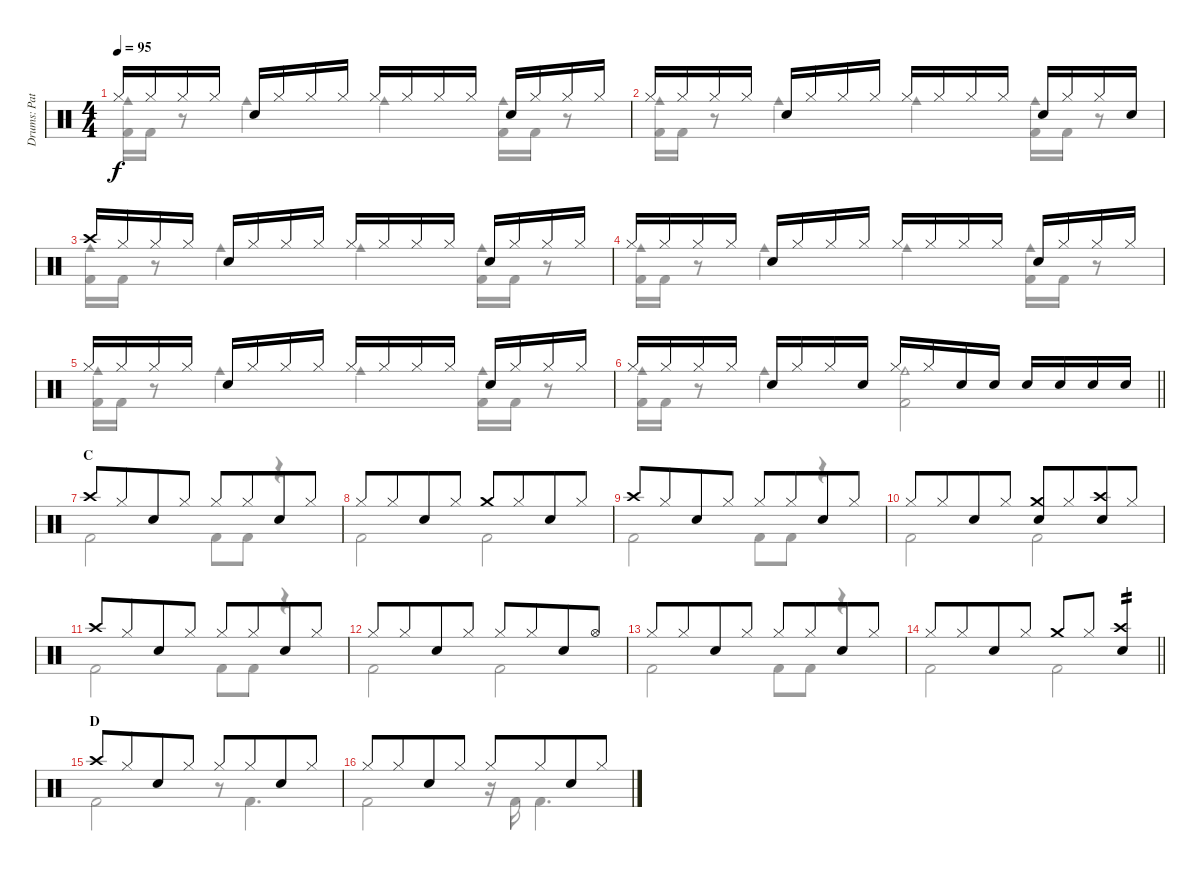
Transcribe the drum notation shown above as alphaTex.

\track ("Drums: Pat" "Drums: Pat") {instrument percussion}
\staff {score}
\articulation defaults
\voice
\ts (4 4)
\tempo 95
\clef neutral
\ks c "Hi-Hat (closed)".16{dy f} "Hi-Hat (closed)".16 "Hi-Hat (closed)".16 "Hi-Hat (closed)".16 "Snare (hit) 2".16 "Hi-Hat (closed)".16 "Hi-Hat (closed)".16 "Hi-Hat (closed)".16 "Hi-Hat (closed)".16 "Hi-Hat (closed)".16 "Hi-Hat (closed)".16 "Hi-Hat (closed)".16 "Snare (hit) 2".16 "Hi-Hat (closed)".16 "Hi-Hat (closed)".16 "Hi-Hat (closed)".16
|
"Hi-Hat (closed)".16 "Hi-Hat (closed)".16 "Hi-Hat (closed)".16 "Hi-Hat (closed)".16 "Snare (hit) 2".16 "Hi-Hat (closed)".16 "Hi-Hat (closed)".16 "Hi-Hat (closed)".16 "Hi-Hat (closed)".16 "Hi-Hat (closed)".16 "Hi-Hat (closed)".16 "Hi-Hat (closed)".16 "Snare (hit) 2".16 "Hi-Hat (closed)".16 "Hi-Hat (closed)".16 "Snare (hit) 2".16 |
"Crash high (hit)".16 "Hi-Hat (closed)".16 "Hi-Hat (closed)".16 "Hi-Hat (closed)".16 "Snare (hit) 2".16 "Hi-Hat (closed)".16 "Hi-Hat (closed)".16 "Hi-Hat (closed)".16 "Hi-Hat (closed)".16 "Hi-Hat (closed)".16 "Hi-Hat (closed)".16 "Hi-Hat (closed)".16 "Snare (hit) 2".16 "Hi-Hat (closed)".16 "Hi-Hat (closed)".16 "Hi-Hat (closed)".16 |
"Hi-Hat (closed)".16 "Hi-Hat (closed)".16 "Hi-Hat (closed)".16 "Hi-Hat (closed)".16 "Snare (hit) 2".16 "Hi-Hat (closed)".16 "Hi-Hat (closed)".16 "Hi-Hat (closed)".16 "Hi-Hat (closed)".16 "Hi-Hat (closed)".16 "Hi-Hat (closed)".16 "Hi-Hat (closed)".16 "Snare (hit) 2".16 "Hi-Hat (closed)".16 "Hi-Hat (closed)".16 "Hi-Hat (closed)".16 |
"Hi-Hat (closed)".16 "Hi-Hat (closed)".16 "Hi-Hat (closed)".16 "Hi-Hat (closed)".16 "Snare (hit) 2".16 "Hi-Hat (closed)".16 "Hi-Hat (closed)".16 "Hi-Hat (closed)".16 "Hi-Hat (closed)".16 "Hi-Hat (closed)".16 "Hi-Hat (closed)".16 "Hi-Hat (closed)".16 "Snare (hit) 2".16 "Hi-Hat (closed)".16 "Hi-Hat (closed)".16 "Hi-Hat (closed)".16 |
\barLineRight lightlight "Hi-Hat (closed)".16 "Hi-Hat (closed)".16 "Hi-Hat (closed)".16 "Hi-Hat (closed)".16 "Snare (hit) 2".16 "Hi-Hat (closed)".16 "Hi-Hat (closed)".16 "Snare (hit) 2".16 "Hi-Hat (closed)".16 "Hi-Hat (closed)".16 "Snare (hit) 2".16 "Snare (hit) 2".16 "Snare (hit) 2".16 "Snare (hit) 2".16 "Snare (hit) 2".16 "Snare (hit) 2".16
|
\section ("" "C")
"Crash high (hit)".8 "Hi-Hat (closed)".8{beam merge} "Snare (hit) 2".8 "Hi-Hat (closed)".8 "Hi-Hat (closed)".8 "Hi-Hat (closed)".8{beam merge} "Snare (hit) 2".8 "Hi-Hat (closed)".8 |
"Hi-Hat (closed)".8 "Hi-Hat (closed)".8{beam merge} "Snare (hit) 2".8 "Hi-Hat (closed)".8 "Crash medium (hit)".8 "Hi-Hat (closed)".8{beam merge} "Snare (hit) 2".8 "Hi-Hat (closed)".8 |
"Crash high (hit)".8 "Hi-Hat (closed)".8{beam merge} "Snare (hit) 2".8 "Hi-Hat (closed)".8 "Hi-Hat (closed)".8 "Hi-Hat (closed)".8{beam merge} "Snare (hit) 2".8 "Hi-Hat (closed)".8 |
"Hi-Hat (closed)".8 "Hi-Hat (closed)".8{beam merge} "Snare (hit) 2".8 "Hi-Hat (closed)".8 ("Crash medium (hit)" "Snare (hit) 2").8 "Hi-Hat (closed)".8{beam merge} ("Crash high (hit)" "Snare (hit) 2").8 "Hi-Hat (closed)".8 |
"Crash high (hit)".8 "Hi-Hat (closed)".8{beam merge} "Snare (hit) 2".8 "Hi-Hat (closed)".8 "Hi-Hat (closed)".8 "Hi-Hat (closed)".8{beam merge} "Snare (hit) 2".8 "Hi-Hat (closed)".8 |
"Hi-Hat (closed)".8 "Hi-Hat (closed)".8{beam merge} "Snare (hit) 2".8 "Hi-Hat (closed)".8 "Hi-Hat (closed)".8 "Hi-Hat (closed)".8{beam merge} "Snare (hit) 2".8 "Hi-Hat (open)".8 |
"Hi-Hat (closed)".8 "Hi-Hat (closed)".8{beam merge} "Snare (hit) 2".8 "Hi-Hat (closed)".8 "Hi-Hat (closed)".8 "Hi-Hat (closed)".8{beam merge} "Snare (hit) 2".8 "Hi-Hat (closed)".8 |
\barLineRight lightlight "Hi-Hat (closed)".8 "Hi-Hat (closed)".8{beam merge} "Snare (hit) 2".8 "Hi-Hat (closed)".8 "Crash medium (hit)".8 "Hi-Hat (closed)".8{beam merge}
("Crash high (hit)" "Snare (hit) 2").4{tp 2} |
\section ("" "D")
"Crash high (hit)".8 "Hi-Hat (closed)".8{beam merge} "Snare (hit) 2".8 "Hi-Hat (closed)".8 "Hi-Hat (closed)".8 "Hi-Hat (closed)".8{beam merge} "Snare (hit) 2".8 "Hi-Hat (closed)".8 |
"Hi-Hat (closed)".8 "Hi-Hat (closed)".8{beam merge} "Snare (hit) 2".8 "Hi-Hat (closed)".8 "Hi-Hat (closed)".8 "Hi-Hat (closed)".8{beam merge} "Snare (hit) 2".8 "Hi-Hat (closed)".8
\voice
\clef neutral
\ottava regular
\simile none
\ks c
("Kick (hit) 2" "Cowbell medium (hit)").16{dy f} "Kick (hit) 2".16 r.8 "Cowbell medium (hit)".4 "Cowbell medium (hit)".4 ("Kick (hit) 2" "Cowbell medium (hit)").16 "Kick (hit) 2".16 r.8 |
("Kick (hit) 2" "Cowbell medium (hit)").16 "Kick (hit) 2".16 r.8 "Cowbell medium (hit)".4 "Cowbell medium (hit)".4 ("Kick (hit) 2" "Cowbell medium (hit)").16 "Kick (hit) 2".16 r.8 |
("Kick (hit) 2" "Cowbell medium (hit)").16 "Kick (hit) 2".16 r.8 "Cowbell medium (hit)".4 "Cowbell medium (hit)".4 ("Kick (hit) 2" "Cowbell medium (hit)").16 "Kick (hit) 2".16 r.8 |
("Kick (hit) 2" "Cowbell medium (hit)").16 "Kick (hit) 2".16 r.8 "Cowbell medium (hit)".4 "Cowbell medium (hit)".4 ("Kick (hit) 2" "Cowbell medium (hit)").16 "Kick (hit) 2".16 r.8 |
("Kick (hit) 2" "Cowbell medium (hit)").16 "Kick (hit) 2".16 r.8 "Cowbell medium (hit)".4 "Cowbell medium (hit)".4 ("Kick (hit) 2" "Cowbell medium (hit)").16 "Kick (hit) 2".16 r.8 |
\barLineRight lightlight
("Kick (hit) 2" "Cowbell medium (hit)").16 "Kick (hit) 2".16 r.8 "Cowbell medium (hit)".4 ("Kick (hit) 2" "Cowbell medium (hit)").2 |
"Kick (hit) 2".2 "Kick (hit) 2".8 "Kick (hit) 2".8 r.4 |
"Kick (hit) 2".2 "Kick (hit) 2".2 |
"Kick (hit) 2".2 "Kick (hit) 2".8 "Kick (hit) 2".8 r.4 |
"Kick (hit) 2".2 "Kick (hit) 2".2 |
"Kick (hit) 2".2 "Kick (hit) 2".8 "Kick (hit) 2".8 r.4 |
"Kick (hit) 2".2 "Kick (hit) 2".2 |
"Kick (hit) 2".2 "Kick (hit) 2".8 "Kick (hit) 2".8 r.4 |
\barLineRight lightlight "Kick (hit) 2".2 "Kick (hit) 2".2
|
"Kick (hit) 2".2 r.8 "Kick (hit) 2".4{d} |
"Kick (hit) 2".2 r.16 "Kick (hit) 2".16 "Kick (hit) 2".4{d}
